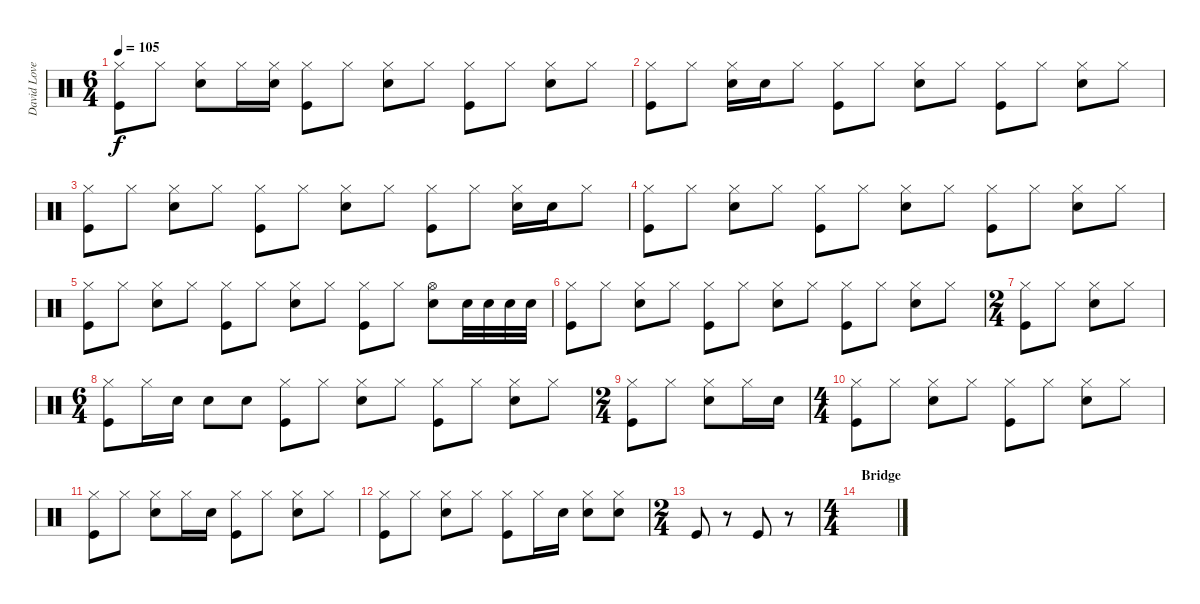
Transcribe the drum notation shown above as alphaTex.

\track ("David Lovering" "David Love") {instrument percussion}
\staff {score}
\articulation defaults
\ts (6 4)
\tempo 105
\clef neutral
\ks c
("Hi-Hat (closed)" "Kick (hit)").8{dy f} "Hi-Hat (closed)".8 ("Hi-Hat (closed)" "Snare (hit) 2").8 "Hi-Hat (closed)".16 ("Hi-Hat (closed)" "Snare (hit) 2").16 ("Hi-Hat (closed)" "Kick (hit)").8 "Hi-Hat (closed)".8 ("Hi-Hat (closed)" "Snare (hit) 2").8 "Hi-Hat (closed)".8 ("Hi-Hat (closed)" "Kick (hit)").8 "Hi-Hat (closed)".8 ("Hi-Hat (closed)" "Snare (hit) 2").8 "Hi-Hat (closed)".8 |
("Hi-Hat (closed)" "Kick (hit)").8 "Hi-Hat (closed)".8 ("Hi-Hat (closed)" "Snare (hit) 2").16 "Snare (hit) 2".16 "Hi-Hat (closed)".8 ("Hi-Hat (closed)" "Kick (hit)").8 "Hi-Hat (closed)".8 ("Hi-Hat (closed)" "Snare (hit) 2").8 "Hi-Hat (closed)".8 ("Hi-Hat (closed)" "Kick (hit)").8 "Hi-Hat (closed)".8 ("Hi-Hat (closed)" "Snare (hit) 2").8 "Hi-Hat (closed)".8 |
("Hi-Hat (closed)" "Kick (hit)").8 "Hi-Hat (closed)".8 ("Hi-Hat (closed)" "Snare (hit) 2").8 "Hi-Hat (closed)".8 ("Hi-Hat (closed)" "Kick (hit)").8 "Hi-Hat (closed)".8 ("Hi-Hat (closed)" "Snare (hit) 2").8 "Hi-Hat (closed)".8 ("Hi-Hat (closed)" "Kick (hit)").8 "Hi-Hat (closed)".8 ("Hi-Hat (closed)" "Snare (hit) 2").16 "Snare (hit) 2".16 "Hi-Hat (closed)".8 |
\section ("" "")
("Hi-Hat (closed)" "Kick (hit)").8 "Hi-Hat (closed)".8 ("Hi-Hat (closed)" "Snare (hit) 2").8 "Hi-Hat (closed)".8 ("Hi-Hat (closed)" "Kick (hit)").8 "Hi-Hat (closed)".8 ("Hi-Hat (closed)" "Snare (hit) 2").8 "Hi-Hat (closed)".8 ("Hi-Hat (closed)" "Kick (hit)").8 "Hi-Hat (closed)".8 ("Hi-Hat (closed)" "Snare (hit) 2").8 "Hi-Hat (closed)".8 |
("Hi-Hat (closed)" "Kick (hit)").8 "Hi-Hat (closed)".8 ("Hi-Hat (closed)" "Snare (hit) 2").8 "Hi-Hat (closed)".8 ("Hi-Hat (closed)" "Kick (hit)").8 "Hi-Hat (closed)".8 ("Hi-Hat (closed)" "Snare (hit) 2").8 "Hi-Hat (closed)".8 ("Hi-Hat (closed)" "Kick (hit)").8 "Hi-Hat (closed)".8 ("Hi-Hat (open)" "Snare (hit) 2").8 "Snare (hit) 2".32 "Snare (hit) 2".32 "Snare (hit) 2".32 "Snare (hit) 2".32 |
("Hi-Hat (closed)" "Kick (hit)").8 "Hi-Hat (closed)".8 ("Hi-Hat (closed)" "Snare (hit) 2").8 "Hi-Hat (closed)".8 ("Hi-Hat (closed)" "Kick (hit)").8 "Hi-Hat (closed)".8 ("Hi-Hat (closed)" "Snare (hit) 2").8 "Hi-Hat (closed)".8 ("Hi-Hat (closed)" "Kick (hit)").8 "Hi-Hat (closed)".8 ("Hi-Hat (closed)" "Snare (hit) 2").8 "Hi-Hat (closed)".8 |
\ts (2 4)
("Hi-Hat (closed)" "Kick (hit)").8 "Hi-Hat (closed)".8 ("Hi-Hat (closed)" "Snare (hit) 2").8 "Hi-Hat (closed)".8 |
\ts (6 4)
("Hi-Hat (closed)" "Kick (hit)").8 "Hi-Hat (closed)".16 "Snare (hit) 2".16 "Snare (hit) 2".8 "Snare (hit) 2".8 ("Hi-Hat (closed)" "Kick (hit)").8 "Hi-Hat (closed)".8 ("Hi-Hat (closed)" "Snare (hit) 2").8 "Hi-Hat (closed)".8 ("Hi-Hat (closed)" "Kick (hit)").8 "Hi-Hat (closed)".8 ("Hi-Hat (closed)" "Snare (hit) 2").8 "Hi-Hat (closed)".8 |
\ts (2 4)
("Hi-Hat (closed)" "Kick (hit)").8 "Hi-Hat (closed)".8 ("Hi-Hat (closed)" "Snare (hit) 2").8 "Hi-Hat (closed)".16 "Snare (hit) 2".16 |
\ts (4 4)
("Hi-Hat (closed)" "Kick (hit)").8 "Hi-Hat (closed)".8 ("Hi-Hat (closed)" "Snare (hit) 2").8 "Hi-Hat (closed)".8 ("Hi-Hat (closed)" "Kick (hit)").8 "Hi-Hat (closed)".8 ("Hi-Hat (closed)" "Snare (hit) 2").8 "Hi-Hat (closed)".8 |
("Hi-Hat (closed)" "Kick (hit)").8 "Hi-Hat (closed)".8 ("Hi-Hat (closed)" "Snare (hit) 2").8 "Hi-Hat (closed)".16 "Snare (hit) 2".16 ("Hi-Hat (closed)" "Kick (hit)").8 "Hi-Hat (closed)".8 ("Hi-Hat (closed)" "Snare (hit) 2").8 "Hi-Hat (closed)".8 |
("Hi-Hat (closed)" "Kick (hit)").8 "Hi-Hat (closed)".8 ("Hi-Hat (closed)" "Snare (hit) 2").8 "Hi-Hat (closed)".8 ("Hi-Hat (closed)" "Kick (hit)").8 "Hi-Hat (closed)".16 "Snare (hit) 2".16 ("Hi-Hat (closed)" "Snare (hit) 2").8 ("Hi-Hat (closed)" "Snare (hit) 2").8 |
\ts (2 4)
"Kick (hit)".8 r.8 "Kick (hit)".8 r.8 |
\ts (4 4)
\section ("" "Bridge")
